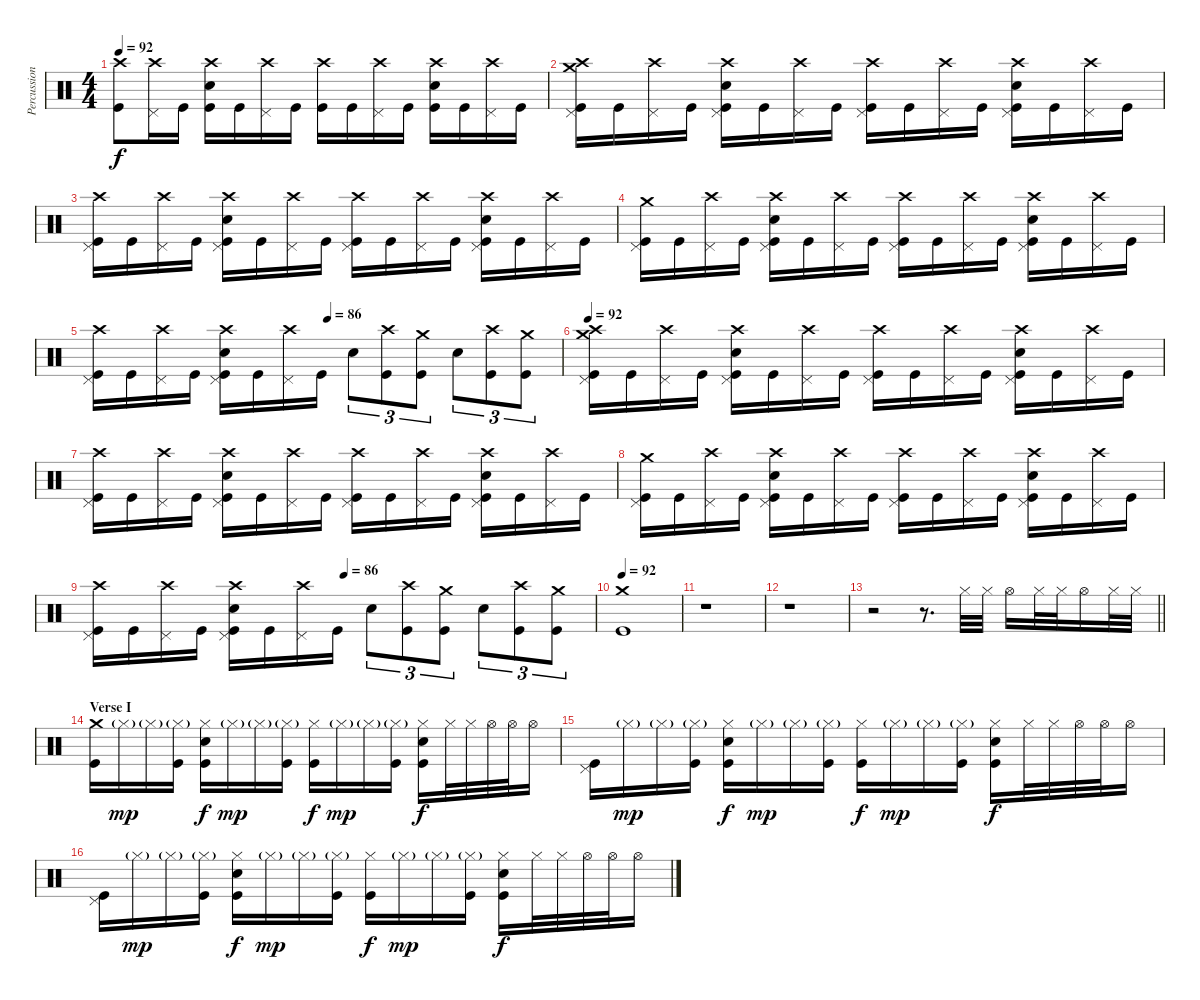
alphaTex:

\track ("Percussion" "Percussion") {instrument percussion}
\staff {score}
\articulation defaults
\ts (4 4)
\tempo 92
\clef neutral
\ks c
("Crash high (hit)" "Kick (hit)").8{dy f} ("Crash high (hit)" "Pedal Hi-Hat (hit)").16 "Kick (hit)".16 ("Crash high (hit)" "Electric Snare (hit)" "Kick (hit)").16 "Kick (hit)".16 ("Crash high (hit)" "Pedal Hi-Hat (hit)").16 "Kick (hit)".16 ("Crash high (hit)" "Kick (hit)").16 "Kick (hit)".16 ("Crash high (hit)" "Pedal Hi-Hat (hit)").16 "Kick (hit)".16 ("Crash high (hit)" "Electric Snare (hit)" "Kick (hit)").16 "Kick (hit)".16 ("Crash high (hit)" "Pedal Hi-Hat (hit)").16 "Kick (hit)".16 |
("Crash medium (hit)" "Crash high (hit)" "Pedal Hi-Hat (hit)" "Kick (hit)").16 "Kick (hit)".16 ("Crash high (hit)" "Pedal Hi-Hat (hit)").16 "Kick (hit)".16 ("Crash high (hit)" "Pedal Hi-Hat (hit)" "Electric Snare (hit)" "Kick (hit)").16 "Kick (hit)".16 ("Crash high (hit)" "Pedal Hi-Hat (hit)").16 "Kick (hit)".16 ("Crash high (hit)" "Pedal Hi-Hat (hit)" "Kick (hit)").16 "Kick (hit)".16 ("Crash high (hit)" "Pedal Hi-Hat (hit)").16 "Kick (hit)".16 ("Crash high (hit)" "Pedal Hi-Hat (hit)" "Electric Snare (hit)" "Kick (hit)").16 "Kick (hit)".16 ("Crash high (hit)" "Pedal Hi-Hat (hit)").16 "Kick (hit)".16 |
("Crash high (hit)" "Pedal Hi-Hat (hit)" "Kick (hit)").16 "Kick (hit)".16 ("Crash high (hit)" "Pedal Hi-Hat (hit)").16 "Kick (hit)".16 ("Crash high (hit)" "Pedal Hi-Hat (hit)" "Electric Snare (hit)" "Kick (hit)").16 "Kick (hit)".16 ("Crash high (hit)" "Pedal Hi-Hat (hit)").16 "Kick (hit)".16 ("Crash high (hit)" "Pedal Hi-Hat (hit)" "Kick (hit)").16 "Kick (hit)".16 ("Crash high (hit)" "Pedal Hi-Hat (hit)").16 "Kick (hit)".16 ("Crash high (hit)" "Pedal Hi-Hat (hit)" "Electric Snare (hit)" "Kick (hit)").16 "Kick (hit)".16 ("Crash high (hit)" "Pedal Hi-Hat (hit)").16 "Kick (hit)".16 |
("Crash medium (hit)" "Pedal Hi-Hat (hit)" "Kick (hit)").16 "Kick (hit)".16 ("Crash high (hit)" "Pedal Hi-Hat (hit)").16 "Kick (hit)".16 ("Crash high (hit)" "Pedal Hi-Hat (hit)" "Electric Snare (hit)" "Kick (hit)").16 "Kick (hit)".16 ("Crash high (hit)" "Pedal Hi-Hat (hit)").16 "Kick (hit)".16 ("Crash high (hit)" "Pedal Hi-Hat (hit)" "Kick (hit)").16 "Kick (hit)".16 ("Crash high (hit)" "Pedal Hi-Hat (hit)").16 "Kick (hit)".16 ("Crash high (hit)" "Pedal Hi-Hat (hit)" "Electric Snare (hit)" "Kick (hit)").16 "Kick (hit)".16 ("Crash high (hit)" "Pedal Hi-Hat (hit)").16 "Kick (hit)".16 |
\tempo (86 0.5)
("Crash high (hit)" "Pedal Hi-Hat (hit)" "Kick (hit)").16 "Kick (hit)".16 ("Crash high (hit)" "Pedal Hi-Hat (hit)").16 "Kick (hit)".16 ("Crash high (hit)" "Pedal Hi-Hat (hit)" "Electric Snare (hit)" "Kick (hit)").16 "Kick (hit)".16 ("Crash high (hit)" "Pedal Hi-Hat (hit)").16 "Kick (hit)".16 "Electric Snare (hit)".8{tu (3 2)} ("Crash high (hit)" "Kick (hit)").8{tu (3 2)} ("Crash medium (hit)" "Kick (hit)").8{tu (3 2)} "Electric Snare (hit)".8{tu (3 2)} ("Crash high (hit)" "Kick (hit)").8{tu (3 2)} ("Crash medium (hit)" "Kick (hit)").8{tu (3 2)} |
\tempo 92
("Crash high (hit)" "Crash medium (hit)" "Pedal Hi-Hat (hit)" "Kick (hit)").16 "Kick (hit)".16 ("Crash high (hit)" "Pedal Hi-Hat (hit)").16 "Kick (hit)".16 ("Crash high (hit)" "Pedal Hi-Hat (hit)" "Electric Snare (hit)" "Kick (hit)").16 "Kick (hit)".16 ("Crash high (hit)" "Pedal Hi-Hat (hit)").16 "Kick (hit)".16 ("Crash high (hit)" "Pedal Hi-Hat (hit)" "Kick (hit)").16 "Kick (hit)".16 ("Crash high (hit)" "Pedal Hi-Hat (hit)").16 "Kick (hit)".16 ("Crash high (hit)" "Pedal Hi-Hat (hit)" "Electric Snare (hit)" "Kick (hit)").16 "Kick (hit)".16 ("Crash high (hit)" "Pedal Hi-Hat (hit)").16 "Kick (hit)".16 |
("Crash high (hit)" "Pedal Hi-Hat (hit)" "Kick (hit)").16 "Kick (hit)".16 ("Crash high (hit)" "Pedal Hi-Hat (hit)").16 "Kick (hit)".16 ("Crash high (hit)" "Pedal Hi-Hat (hit)" "Electric Snare (hit)" "Kick (hit)").16 "Kick (hit)".16 ("Crash high (hit)" "Pedal Hi-Hat (hit)").16 "Kick (hit)".16 ("Crash high (hit)" "Pedal Hi-Hat (hit)" "Kick (hit)").16 "Kick (hit)".16 ("Crash high (hit)" "Pedal Hi-Hat (hit)").16 "Kick (hit)".16 ("Crash high (hit)" "Pedal Hi-Hat (hit)" "Electric Snare (hit)" "Kick (hit)").16 "Kick (hit)".16 ("Crash high (hit)" "Pedal Hi-Hat (hit)").16 "Kick (hit)".16 |
("Crash medium (hit)" "Pedal Hi-Hat (hit)" "Kick (hit)").16 "Kick (hit)".16 ("Crash high (hit)" "Pedal Hi-Hat (hit)").16 "Kick (hit)".16 ("Crash high (hit)" "Pedal Hi-Hat (hit)" "Electric Snare (hit)" "Kick (hit)").16 "Kick (hit)".16 ("Crash high (hit)" "Pedal Hi-Hat (hit)").16 "Kick (hit)".16 ("Crash high (hit)" "Pedal Hi-Hat (hit)" "Kick (hit)").16 "Kick (hit)".16 ("Crash high (hit)" "Pedal Hi-Hat (hit)").16 "Kick (hit)".16 ("Crash high (hit)" "Pedal Hi-Hat (hit)" "Electric Snare (hit)" "Kick (hit)").16 "Kick (hit)".16 ("Crash high (hit)" "Pedal Hi-Hat (hit)").16 "Kick (hit)".16 |
\tempo (86 0.5)
("Crash high (hit)" "Pedal Hi-Hat (hit)" "Kick (hit)").16 "Kick (hit)".16 ("Crash high (hit)" "Pedal Hi-Hat (hit)").16 "Kick (hit)".16 ("Crash high (hit)" "Pedal Hi-Hat (hit)" "Electric Snare (hit)" "Kick (hit)").16 "Kick (hit)".16 ("Crash high (hit)" "Pedal Hi-Hat (hit)").16 "Kick (hit)".16 "Electric Snare (hit)".8{tu (3 2)} ("Crash high (hit)" "Kick (hit)").8{tu (3 2)} ("Crash medium (hit)" "Kick (hit)").8{tu (3 2)} "Electric Snare (hit)".8{tu (3 2)} ("Crash high (hit)" "Kick (hit)").8{tu (3 2)} ("Crash medium (hit)" "Kick (hit)").8{tu (3 2)} |
\tempo 92
("Crash medium (hit)" "Kick (hit)").1 |
r.1 |
r.1 |
\barLineRight lightlight
r.2 r.8{d} "Hi-Hat (closed)".32 "Hi-Hat (closed)".32 "Hi-Hat (open)".16 "Hi-Hat (closed)".32 "Hi-Hat (closed)".32 "Hi-Hat (open)".16 "Hi-Hat (closed)".32 "Hi-Hat (closed)".32 |
\section ("" "Verse I")
("Crash medium (hit)" "Kick (hit)").16 "Hi-Hat (closed)"{g}.16{dy mp} "Hi-Hat (closed)"{g}.16 ("Hi-Hat (closed)"{g} "Kick (hit)").16 ("Hi-Hat (closed)" "Electric Snare (hit)" "Kick (hit)").16{dy f} "Hi-Hat (closed)"{g}.16{dy mp} "Hi-Hat (closed)"{g}.16 ("Hi-Hat (closed)"{g} "Kick (hit)").16 ("Hi-Hat (closed)" "Kick (hit)").16{dy f} "Hi-Hat (closed)"{g}.16{dy mp} "Hi-Hat (closed)"{g}.16 ("Hi-Hat (closed)"{g} "Kick (hit)").16 ("Hi-Hat (closed)" "Electric Snare (hit)" "Kick (hit)").16{dy f} "Hi-Hat (closed)".32 "Hi-Hat (closed)".32 "Hi-Hat (open)".32 "Hi-Hat (open)".32 "Hi-Hat (open)".16 |
("Pedal Hi-Hat (hit)" "Kick (hit)").16 "Hi-Hat (closed)"{g}.16{dy mp} "Hi-Hat (closed)"{g}.16 ("Hi-Hat (closed)"{g} "Kick (hit)").16 ("Hi-Hat (closed)" "Electric Snare (hit)" "Kick (hit)").16{dy f} "Hi-Hat (closed)"{g}.16{dy mp} "Hi-Hat (closed)"{g}.16 ("Hi-Hat (closed)"{g} "Kick (hit)").16 ("Hi-Hat (closed)" "Kick (hit)").16{dy f} "Hi-Hat (closed)"{g}.16{dy mp} "Hi-Hat (closed)"{g}.16 ("Hi-Hat (closed)"{g} "Kick (hit)").16 ("Hi-Hat (closed)" "Electric Snare (hit)" "Kick (hit)").16{dy f} "Hi-Hat (closed)".32 "Hi-Hat (closed)".32 "Hi-Hat (open)".32 "Hi-Hat (open)".32 "Hi-Hat (open)".16 |
("Pedal Hi-Hat (hit)" "Kick (hit)").16 "Hi-Hat (closed)"{g}.16{dy mp} "Hi-Hat (closed)"{g}.16 ("Hi-Hat (closed)"{g} "Kick (hit)").16 ("Hi-Hat (closed)" "Electric Snare (hit)" "Kick (hit)").16{dy f} "Hi-Hat (closed)"{g}.16{dy mp} "Hi-Hat (closed)"{g}.16 ("Hi-Hat (closed)"{g} "Kick (hit)").16 ("Hi-Hat (closed)" "Kick (hit)").16{dy f} "Hi-Hat (closed)"{g}.16{dy mp} "Hi-Hat (closed)"{g}.16 ("Hi-Hat (closed)"{g} "Kick (hit)").16 ("Hi-Hat (closed)" "Electric Snare (hit)" "Kick (hit)").16{dy f} "Hi-Hat (closed)".32 "Hi-Hat (closed)".32 "Hi-Hat (open)".32 "Hi-Hat (open)".32 "Hi-Hat (open)".16
